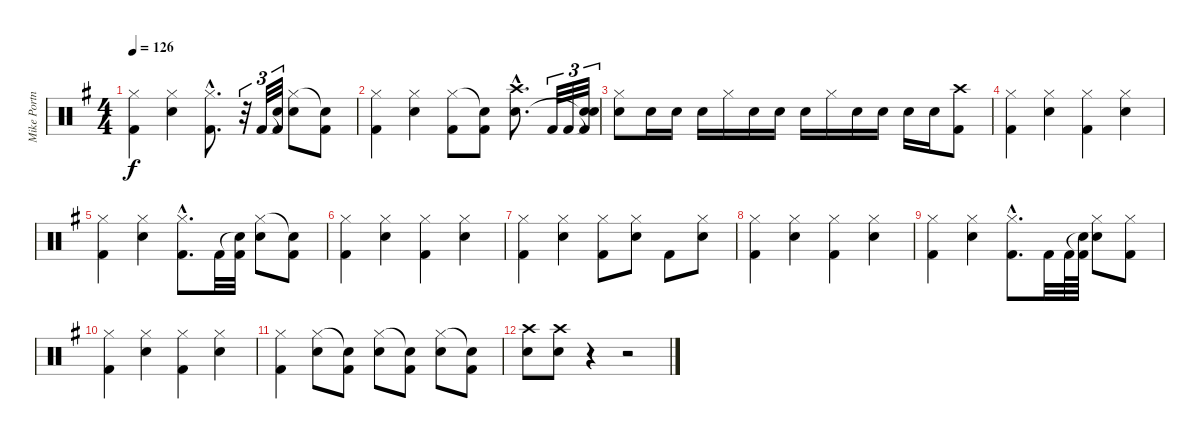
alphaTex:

\track ("Mike Portnoy" "Mike Portn") {instrument percussion}
\staff {score}
\articulation defaults
\ts (4 4)
\tempo 126
\clef neutral
\ks g
("Hi-Hat (closed)" "Kick (hit) 2").4{dy f} ("Hi-Hat (closed)" "Snare (hit) 2").4 ("Hi-Hat (closed)"{hac} "Kick (hit) 2"{hac}).8{d} r.32{tu (3 2)} "Kick (hit) 2".32{tu (3 2)} ("Snare (hit)"{t} "Kick (hit) 2").32{tu (3 2)} ("Hi-Hat (closed)" "Snare (hit) 2").8 ("Snare (hit)"{t} "Kick (hit) 2").8 |
("Hi-Hat (closed)" "Kick (hit) 2").4 ("Hi-Hat (closed)" "Snare (hit) 2").4 ("Hi-Hat (closed)" "Kick (hit) 2").8 ("Snare (hit)"{t} "Kick (hit) 2").8 ("Crash high (hit)"{hac} "Snare (hit) 2"{hac}).8{d} "Kick (hit) 2".32{tu (3 2)} "Kick (hit) 2".32{tu (3 2)} ("Snare (hit)"{t} "Snare (hit)"{t} "Kick (hit) 2").32{tu (3 2)} |
("Hi-Hat (closed)" "Snare (hit) 2").8 "Snare (hit) 2".16 "Snare (hit) 2".16 "Snare (hit) 2".16 "Hi-Hat (closed)".16 "Snare (hit) 2".16 "Snare (hit) 2".16 "Snare (hit) 2".16 "Hi-Hat (closed)".16 "Snare (hit) 2".16 "Snare (hit) 2".16 "Snare (hit) 2".16 "Snare (hit) 2".16 ("Crash high (hit)" "Kick (hit) 2").8 |
("Hi-Hat (closed)" "Kick (hit) 2").4 ("Hi-Hat (closed)" "Snare (hit) 2").4 ("Hi-Hat (closed)" "Kick (hit) 2").4 ("Hi-Hat (closed)" "Snare (hit) 2").4 |
("Hi-Hat (closed)" "Kick (hit) 2").4 ("Hi-Hat (closed)" "Snare (hit) 2").4 ("Hi-Hat (closed)"{hac} "Kick (hit) 2"{hac}).8{d} "Kick (hit) 2".32 ("Snare (hit)"{t} "Kick (hit) 2").32 ("Hi-Hat (closed)" "Snare (hit) 2").8 ("Snare (hit)"{t} "Kick (hit) 2").8 |
("Hi-Hat (closed)" "Kick (hit) 2").4 ("Hi-Hat (closed)" "Snare (hit) 2").4 ("Hi-Hat (closed)" "Kick (hit) 2").4 ("Hi-Hat (closed)" "Snare (hit) 2").4 |
("Hi-Hat (closed)" "Kick (hit) 2").4 ("Hi-Hat (closed)" "Snare (hit) 2").4 ("Hi-Hat (closed)" "Kick (hit) 2").8 ("Hi-Hat (closed)" "Snare (hit) 2").8 "Kick (hit) 2".8 ("Hi-Hat (closed)" "Snare (hit) 2").8 |
("Hi-Hat (closed)" "Kick (hit) 2").4 ("Hi-Hat (closed)" "Snare (hit) 2").4 ("Hi-Hat (closed)" "Kick (hit) 2").4 ("Hi-Hat (closed)" "Snare (hit) 2").4 |
("Hi-Hat (closed)" "Kick (hit) 2").4 ("Hi-Hat (closed)" "Snare (hit) 2").4 ("Hi-Hat (closed)"{hac} "Kick (hit) 2"{hac}).8{d} "Kick (hit) 2".32 "Kick (hit) 2".64 ("Snare (hit)"{t} "Kick (hit) 2").64 ("Hi-Hat (closed)" "Snare (hit) 2").8 ("Hi-Hat (closed)" "Kick (hit) 2").8 |
("Hi-Hat (closed)" "Kick (hit) 2").4 ("Hi-Hat (closed)" "Snare (hit) 2").4 ("Hi-Hat (closed)" "Kick (hit) 2").4 ("Hi-Hat (closed)" "Snare (hit) 2").4 |
("Hi-Hat (closed)" "Kick (hit) 2").4 ("Hi-Hat (closed)" "Snare (hit) 2").8 ("Snare (hit)"{t} "Kick (hit) 2").8 ("Hi-Hat (closed)" "Snare (hit) 2").8 ("Snare (hit)"{t} "Kick (hit) 2").8 ("Hi-Hat (closed)" "Snare (hit) 2").8 ("Snare (hit)"{t} "Kick (hit) 2").8 |
("Crash high (hit)" "Snare (hit) 2").8 ("Crash high (hit)" "Snare (hit) 2").8 r.4 r.2
